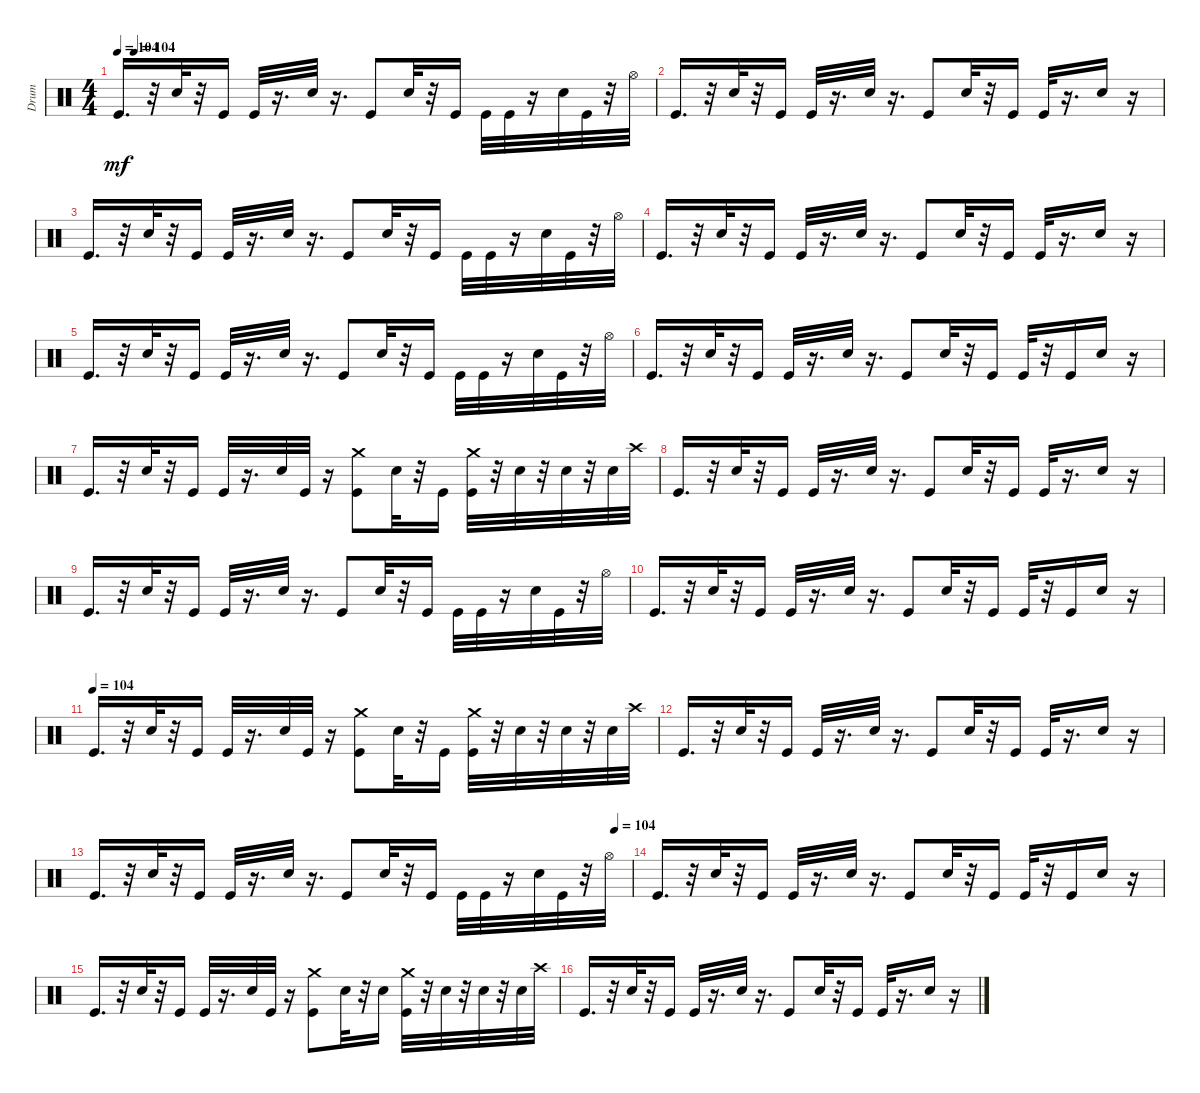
\track ("Drum" "Drum") {instrument percussion}
\staff {score}
\articulation defaults
\ts (4 4)
\tempo 104
\tempo (104 0.03125)
\clef neutral
\ks c "Kick (hit)".16{d dy mf}
r.32 "Snare (hit) 2".32 r.32 "Kick (hit)".16 "Kick (hit)".32 r.16{d} "Snare (hit) 2".32 r.16{d} "Kick (hit)".8 "Snare (hit) 2".32 r.32 "Kick (hit)".16 "Kick (hit)".32 "Kick (hit)".32 r.16 "Snare (hit) 2".32 "Kick (hit)".32 r.32 "Hi-Hat (open)".32 |
"Kick (hit)".16{d} r.32 "Snare (hit) 2".32 r.32 "Kick (hit)".16 "Kick (hit)".32 r.16{d} "Snare (hit) 2".32 r.16{d} "Kick (hit)".8 "Snare (hit) 2".32 r.32 "Kick (hit)".16 "Kick (hit)".32 r.16{d} "Snare (hit) 2".16 r.16 |
"Kick (hit)".16{d} r.32 "Snare (hit) 2".32 r.32 "Kick (hit)".16 "Kick (hit)".32 r.16{d} "Snare (hit) 2".32 r.16{d} "Kick (hit)".8 "Snare (hit) 2".32 r.32 "Kick (hit)".16 "Kick (hit)".32 "Kick (hit)".32 r.16 "Snare (hit) 2".32 "Kick (hit)".32 r.32 "Hi-Hat (open)".32 |
"Kick (hit)".16{d} r.32 "Snare (hit) 2".32 r.32 "Kick (hit)".16 "Kick (hit)".32 r.16{d} "Snare (hit) 2".32 r.16{d} "Kick (hit)".8 "Snare (hit) 2".32 r.32 "Kick (hit)".16 "Kick (hit)".32 r.16{d} "Snare (hit) 2".16 r.16 |
"Kick (hit)".16{d} r.32 "Snare (hit) 2".32 r.32 "Kick (hit)".16 "Kick (hit)".32 r.16{d} "Snare (hit) 2".32 r.16{d} "Kick (hit)".8 "Snare (hit) 2".32 r.32 "Kick (hit)".16 "Kick (hit)".32 "Kick (hit)".32 r.16 "Snare (hit) 2".32 "Kick (hit)".32 r.32 "Hi-Hat (open)".32 |
"Kick (hit)".16{d} r.32 "Snare (hit) 2".32 r.32 "Kick (hit)".16 "Kick (hit)".32 r.16{d} "Snare (hit) 2".32 r.16{d} "Kick (hit)".8 "Snare (hit) 2".32 r.32 "Kick (hit)".16 "Kick (hit)".32 r.32 "Kick (hit)".16 "Snare (hit) 2".16 r.16 |
"Kick (hit)".16{d} r.32 "Snare (hit) 2".32 r.32 "Kick (hit)".16 "Kick (hit)".32 r.16{d} "Snare (hit) 2".32 "Kick (hit)".32 r.16 ("Crash medium (hit)" "Kick (hit)").8 "Snare (hit) 2".32 r.32 "Kick (hit)".16 ("Crash medium (hit)" "Kick (hit)").32 r.32 "Snare (hit) 2".32 r.32 "Snare (hit) 2".32 r.32 "Snare (hit) 2".32 "Crash high (hit)".32 |
"Kick (hit)".16{d} r.32 "Snare (hit) 2".32 r.32 "Kick (hit)".16 "Kick (hit)".32 r.16{d} "Snare (hit) 2".32 r.16{d} "Kick (hit)".8 "Snare (hit) 2".32 r.32 "Kick (hit)".16 "Kick (hit)".32 r.16{d} "Snare (hit) 2".16 r.16 |
"Kick (hit)".16{d} r.32 "Snare (hit) 2".32 r.32 "Kick (hit)".16 "Kick (hit)".32 r.16{d} "Snare (hit) 2".32 r.16{d} "Kick (hit)".8 "Snare (hit) 2".32 r.32 "Kick (hit)".16 "Kick (hit)".32 "Kick (hit)".32 r.16 "Snare (hit) 2".32 "Kick (hit)".32 r.32 "Hi-Hat (open)".32 |
"Kick (hit)".16{d} r.32 "Snare (hit) 2".32 r.32 "Kick (hit)".16 "Kick (hit)".32 r.16{d} "Snare (hit) 2".32 r.16{d} "Kick (hit)".8 "Snare (hit) 2".32 r.32 "Kick (hit)".16 "Kick (hit)".32 r.32 "Kick (hit)".16 "Snare (hit) 2".16 r.16 |
\tempo (104)
"Kick (hit)".16{d} r.32 "Snare (hit) 2".32 r.32 "Kick (hit)".16 "Kick (hit)".32 r.16{d} "Snare (hit) 2".32 "Kick (hit)".32 r.16 ("Crash medium (hit)" "Kick (hit)").8 "Snare (hit) 2".32 r.32 "Kick (hit)".16 ("Crash medium (hit)" "Kick (hit)").32 r.32 "Snare (hit) 2".32 r.32 "Snare (hit) 2".32 r.32 "Snare (hit) 2".32 "Crash high (hit)".32 |
"Kick (hit)".16{d} r.32 "Snare (hit) 2".32 r.32 "Kick (hit)".16 "Kick (hit)".32 r.16{d} "Snare (hit) 2".32 r.16{d} "Kick (hit)".8 "Snare (hit) 2".32 r.32 "Kick (hit)".16 "Kick (hit)".32 r.16{d} "Snare (hit) 2".16 r.16 |
\tempo (104 0.96875)
"Kick (hit)".16{d} r.32 "Snare (hit) 2".32 r.32 "Kick (hit)".16 "Kick (hit)".32 r.16{d} "Snare (hit) 2".32 r.16{d} "Kick (hit)".8 "Snare (hit) 2".32 r.32 "Kick (hit)".16 "Kick (hit)".32 "Kick (hit)".32 r.16 "Snare (hit) 2".32 "Kick (hit)".32 r.32 "Hi-Hat (open)".32 |
"Kick (hit)".16{d} r.32 "Snare (hit) 2".32 r.32 "Kick (hit)".16 "Kick (hit)".32 r.16{d} "Snare (hit) 2".32 r.16{d} "Kick (hit)".8 "Snare (hit) 2".32 r.32 "Kick (hit)".16 "Kick (hit)".32 r.32 "Kick (hit)".16 "Snare (hit) 2".16 r.16 |
"Kick (hit)".16{d} r.32 "Snare (hit) 2".32 r.32 "Kick (hit)".16 "Kick (hit)".32 r.16{d} "Snare (hit) 2".32 "Kick (hit)".32 r.16 ("Crash medium (hit)" "Kick (hit)").8 "Snare (hit) 2".32 r.32 "Snare (hit) 2".16 ("Crash medium (hit)" "Kick (hit)").32 r.32 "Snare (hit) 2".32 r.32 "Snare (hit) 2".32 r.32 "Snare (hit) 2".32 "Crash high (hit)".32 |
"Kick (hit)".16{d} r.32 "Snare (hit) 2".32 r.32 "Kick (hit)".16 "Kick (hit)".32 r.16{d} "Snare (hit) 2".32 r.16{d} "Kick (hit)".8 "Snare (hit) 2".32 r.32 "Kick (hit)".16 "Kick (hit)".32 r.16{d} "Snare (hit) 2".16 r.16
